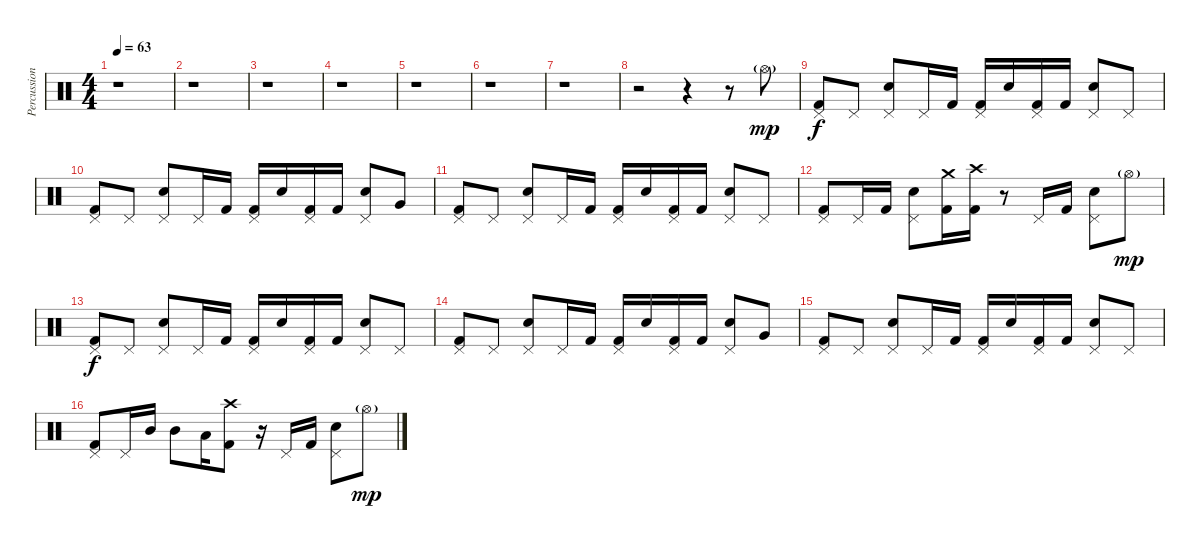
\track ("Percussion" "Percussion") {instrument percussion}
\staff {score}
\articulation defaults
\ts (4 4)
\tempo 63
\clef neutral
\ks c
r.1{dy mp} |
r.1 |
r.1 |
r.1 |
r.1 |
r.1 |
r.1 |
r.2 r.4 r.8 "Hi-Hat (open)"{g}.8 |
("Pedal Hi-Hat (hit)" "Kick (hit) 2").8{dy f} "Pedal Hi-Hat (hit)".8 ("Pedal Hi-Hat (hit)" "Electric Snare (hit)").8 "Pedal Hi-Hat (hit)".16 "Kick (hit) 2".16 ("Pedal Hi-Hat (hit)" "Kick (hit) 2").16 "Electric Snare (hit)".16 ("Pedal Hi-Hat (hit)" "Kick (hit) 2").16 "Kick (hit) 2".16 ("Pedal Hi-Hat (hit)" "Electric Snare (hit)").8 "Pedal Hi-Hat (hit)".8 |
("Pedal Hi-Hat (hit)" "Kick (hit) 2").8 "Pedal Hi-Hat (hit)".8 ("Pedal Hi-Hat (hit)" "Electric Snare (hit)").8 "Pedal Hi-Hat (hit)".16 "Kick (hit) 2".16 ("Pedal Hi-Hat (hit)" "Kick (hit) 2").16 "Electric Snare (hit)".16 ("Pedal Hi-Hat (hit)" "Kick (hit) 2").16 "Kick (hit) 2".16 ("Pedal Hi-Hat (hit)" "Electric Snare (hit)").8 "Very Low Tom (hit)".8 |
("Pedal Hi-Hat (hit)" "Kick (hit) 2").8 "Pedal Hi-Hat (hit)".8 ("Pedal Hi-Hat (hit)" "Electric Snare (hit)").8 "Pedal Hi-Hat (hit)".16 "Kick (hit) 2".16 ("Pedal Hi-Hat (hit)" "Kick (hit) 2").16 "Electric Snare (hit)".16 ("Pedal Hi-Hat (hit)" "Kick (hit) 2").16 "Kick (hit) 2".16 ("Pedal Hi-Hat (hit)" "Electric Snare (hit)").8 "Pedal Hi-Hat (hit)".8 |
("Pedal Hi-Hat (hit)" "Kick (hit) 2").8 "Pedal Hi-Hat (hit)".16 "Kick (hit) 2".16 ("Pedal Hi-Hat (hit)" "Electric Snare (hit)").8 ("Crash medium (hit)" "Kick (hit) 2").16 ("Crash high (hit)" "Kick (hit) 2").16 r.8 "Pedal Hi-Hat (hit)".16 "Kick (hit) 2".16 ("Pedal Hi-Hat (hit)" "Electric Snare (hit)").8 "Hi-Hat (open)"{g}.8{dy mp} |
("Pedal Hi-Hat (hit)" "Kick (hit) 2").8{dy f} "Pedal Hi-Hat (hit)".8 ("Pedal Hi-Hat (hit)" "Electric Snare (hit)").8 "Pedal Hi-Hat (hit)".16 "Kick (hit) 2".16 ("Pedal Hi-Hat (hit)" "Kick (hit) 2").16 "Electric Snare (hit)".16 ("Pedal Hi-Hat (hit)" "Kick (hit) 2").16 "Kick (hit) 2".16 ("Pedal Hi-Hat (hit)" "Electric Snare (hit)").8 "Pedal Hi-Hat (hit)".8 |
("Pedal Hi-Hat (hit)" "Kick (hit) 2").8 "Pedal Hi-Hat (hit)".8 ("Pedal Hi-Hat (hit)" "Electric Snare (hit)").8 "Pedal Hi-Hat (hit)".16 "Kick (hit) 2".16 ("Pedal Hi-Hat (hit)" "Kick (hit) 2").16 "Electric Snare (hit)".16 ("Pedal Hi-Hat (hit)" "Kick (hit) 2").16 "Kick (hit) 2".16 ("Pedal Hi-Hat (hit)" "Electric Snare (hit)").8 "Very Low Tom (hit)".8 |
("Pedal Hi-Hat (hit)" "Kick (hit) 2").8 "Pedal Hi-Hat (hit)".8 ("Pedal Hi-Hat (hit)" "Electric Snare (hit)").8 "Pedal Hi-Hat (hit)".16 "Kick (hit) 2".16 ("Pedal Hi-Hat (hit)" "Kick (hit) 2").16 "Electric Snare (hit)".16 ("Pedal Hi-Hat (hit)" "Kick (hit) 2").16 "Kick (hit) 2".16 ("Pedal Hi-Hat (hit)" "Electric Snare (hit)").8 "Pedal Hi-Hat (hit)".8 |
("Pedal Hi-Hat (hit)" "Kick (hit) 2").8 "Pedal Hi-Hat (hit)".16 "Mid Tom (hit)".16 "Mid Tom (hit)".8 "Low Tom (hit)".16 ("Crash high (hit)" "Kick (hit) 2").8 r.16 "Pedal Hi-Hat (hit)".16 "Kick (hit) 2".16 ("Pedal Hi-Hat (hit)" "Electric Snare (hit)").8 "Hi-Hat (open)"{g}.8{dy mp}
